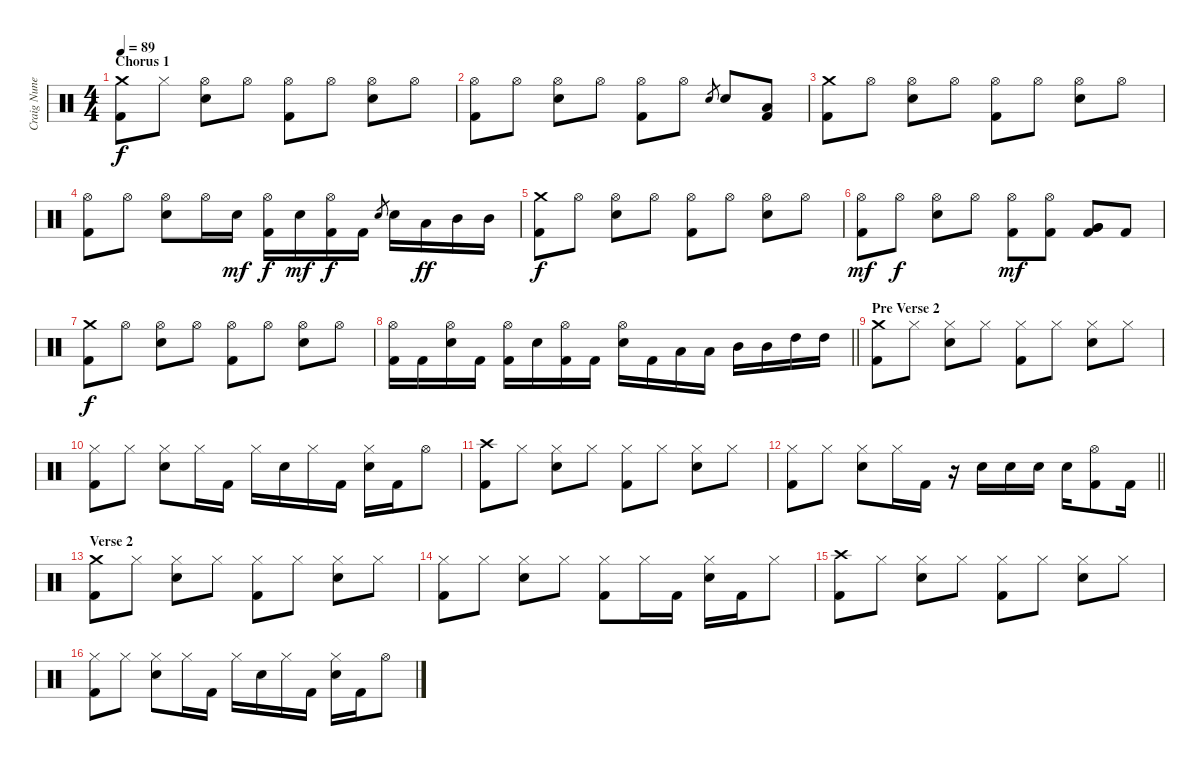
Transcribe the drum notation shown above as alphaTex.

\track ("Craig Nunenmacher" "Craig Nune") {instrument percussion}
\staff {score}
\articulation defaults
\ts (4 4)
\section ("" "Chorus 1")
\tempo 89
\clef neutral
\ks c
("Crash medium (hit)" "Kick (hit) 2").8{dy f} "Hi-Hat (closed)".8 ("Hi-Hat (open)" "Snare (hit) 2").8 "Hi-Hat (open)".8 ("Hi-Hat (open)" "Kick (hit) 2").8 "Hi-Hat (open)".8 ("Hi-Hat (open)" "Snare (hit) 2").8 "Hi-Hat (open)".8 |
("Hi-Hat (open)" "Kick (hit) 2").8 "Hi-Hat (open)".8 ("Hi-Hat (open)" "Snare (hit) 2").8 "Hi-Hat (open)".8 ("Hi-Hat (open)" "Kick (hit) 2").8 "Hi-Hat (open)".8 "Snare (hit) 2".8{gr} "Snare (hit) 2".8 ("Low Tom (hit)" "Kick (hit) 2").8 |
("Crash medium (hit)" "Kick (hit) 2").8 "Hi-Hat (open)".8 ("Hi-Hat (open)" "Snare (hit) 2").8 "Hi-Hat (open)".8 ("Hi-Hat (open)" "Kick (hit) 2").8 "Hi-Hat (open)".8 ("Hi-Hat (open)" "Snare (hit) 2").8 "Hi-Hat (open)".8 |
("Hi-Hat (open)" "Kick (hit) 2").8 "Hi-Hat (open)".8 ("Hi-Hat (open)" "Snare (hit) 2").8 "Hi-Hat (open)".16 "Snare (hit) 2".16{dy mf} ("Hi-Hat (open)" "Kick (hit) 2").16{dy f} "Snare (hit) 2".16{dy mf} ("Hi-Hat (open)" "Kick (hit) 2").16{dy f} "Kick (hit) 2".16 "Snare (hit) 2".8{gr} "Snare (hit) 2".16 "Low Tom (hit)".16{dy ff} "Mid Tom (hit)".16 "Mid Tom (hit)".16 |
("Crash medium (hit)" "Kick (hit) 2").8{dy f} "Hi-Hat (open)".8 ("Hi-Hat (open)" "Snare (hit) 2").8 "Hi-Hat (open)".8 ("Hi-Hat (open)" "Kick (hit) 2").8 "Hi-Hat (open)".8 ("Hi-Hat (open)" "Snare (hit) 2").8 "Hi-Hat (open)".8 |
("Hi-Hat (open)" "Kick (hit) 2").8{dy mf} "Hi-Hat (open)".8{dy f} ("Hi-Hat (open)" "Snare (hit) 2").8 "Hi-Hat (open)".8 ("Hi-Hat (open)" "Kick (hit) 2").8{dy mf} ("Hi-Hat (open)" "Kick (hit) 2").8 ("Very Low Tom (hit)" "Very Low Tom (hit)" "Kick (hit) 2").8 "Kick (hit) 2".8 |
("Crash medium (hit)" "Kick (hit) 2").8{dy f} "Hi-Hat (open)".8 ("Hi-Hat (open)" "Snare (hit) 2").8 "Hi-Hat (open)".8 ("Hi-Hat (open)" "Kick (hit) 2").8 "Hi-Hat (open)".8 ("Hi-Hat (open)" "Snare (hit) 2").8 "Hi-Hat (open)".8 |
\barLineRight lightlight
("Hi-Hat (open)" "Kick (hit) 2").16 "Kick (hit) 2".16 ("Hi-Hat (open)" "Snare (hit) 2").16 "Kick (hit) 2".16 ("Hi-Hat (open)" "Kick (hit) 2").16 "Snare (hit) 2".16 ("Hi-Hat (open)" "Kick (hit) 2").16 "Kick (hit) 2".16 ("Hi-Hat (open)" "Snare (hit) 2").16 "Kick (hit) 2".16 "Low Tom (hit)".16 "Low Tom (hit)".16 "Mid Tom (hit)".16 "Mid Tom (hit)".16 "High Tom (hit)".16 "High Tom (hit)".16 |
\section ("" "Pre Verse 2")
("Crash medium (hit)" "Kick (hit) 2").8 "Hi-Hat (closed)".8 ("Hi-Hat (closed)" "Snare (hit) 2").8 "Hi-Hat (closed)".8 ("Hi-Hat (closed)" "Kick (hit) 2").8 "Hi-Hat (closed)".8 ("Hi-Hat (closed)" "Snare (hit) 2").8 "Hi-Hat (closed)".8 |
("Hi-Hat (closed)" "Kick (hit) 2").8 "Hi-Hat (closed)".8 ("Hi-Hat (closed)" "Snare (hit) 2").8 "Hi-Hat (closed)".16 "Kick (hit) 2".16 "Hi-Hat (closed)".16 "Snare (hit) 2".16 "Hi-Hat (closed)".16 "Kick (hit) 2".16 ("Hi-Hat (closed)" "Snare (hit) 2").16 "Kick (hit) 2".16 "Hi-Hat (open)".8 |
("Crash high (hit)" "Kick (hit) 2").8 "Hi-Hat (closed)".8 ("Hi-Hat (closed)" "Snare (hit) 2").8 "Hi-Hat (closed)".8 ("Hi-Hat (closed)" "Kick (hit) 2").8 "Hi-Hat (closed)".8 ("Hi-Hat (closed)" "Snare (hit) 2").8 "Hi-Hat (closed)".8 |
\barLineRight lightlight
("Hi-Hat (closed)" "Kick (hit) 2").8 "Hi-Hat (closed)".8 ("Hi-Hat (closed)" "Snare (hit) 2").8 "Hi-Hat (closed)".16 "Kick (hit) 2".16 r.16 "Snare (hit) 2".16 "Snare (hit) 2".16 "Snare (hit) 2".16 "Snare (hit) 2".16 ("Hi-Hat (open)" "Kick (hit) 2").8 "Kick (hit) 2".16 |
\section ("" "Verse 2")
("Crash medium (hit)" "Kick (hit) 2").8 "Hi-Hat (closed)".8 ("Hi-Hat (closed)" "Snare (hit) 2").8 "Hi-Hat (closed)".8 ("Hi-Hat (closed)" "Kick (hit) 2").8 "Hi-Hat (closed)".8 ("Hi-Hat (closed)" "Snare (hit) 2").8 "Hi-Hat (closed)".8 |
("Hi-Hat (closed)" "Kick (hit) 2").8 "Hi-Hat (closed)".8 ("Hi-Hat (closed)" "Snare (hit) 2").8 "Hi-Hat (closed)".8 ("Hi-Hat (closed)" "Kick (hit) 2").8 "Hi-Hat (closed)".16 "Kick (hit) 2".16 ("Hi-Hat (closed)" "Snare (hit) 2").16 "Kick (hit) 2".16 "Hi-Hat (closed)".8 |
("Crash high (hit)" "Kick (hit) 2").8 "Hi-Hat (closed)".8 ("Hi-Hat (closed)" "Snare (hit) 2").8 "Hi-Hat (closed)".8 ("Hi-Hat (closed)" "Kick (hit) 2").8 "Hi-Hat (closed)".8 ("Hi-Hat (closed)" "Snare (hit) 2").8 "Hi-Hat (closed)".8 |
("Hi-Hat (closed)" "Kick (hit) 2").8 "Hi-Hat (closed)".8 ("Hi-Hat (closed)" "Snare (hit) 2").8 "Hi-Hat (closed)".16 "Kick (hit) 2".16 "Hi-Hat (closed)".16 "Snare (hit) 2".16 "Hi-Hat (closed)".16 "Kick (hit) 2".16 ("Hi-Hat (closed)" "Snare (hit) 2").16 "Kick (hit) 2".16 "Hi-Hat (open)".8
